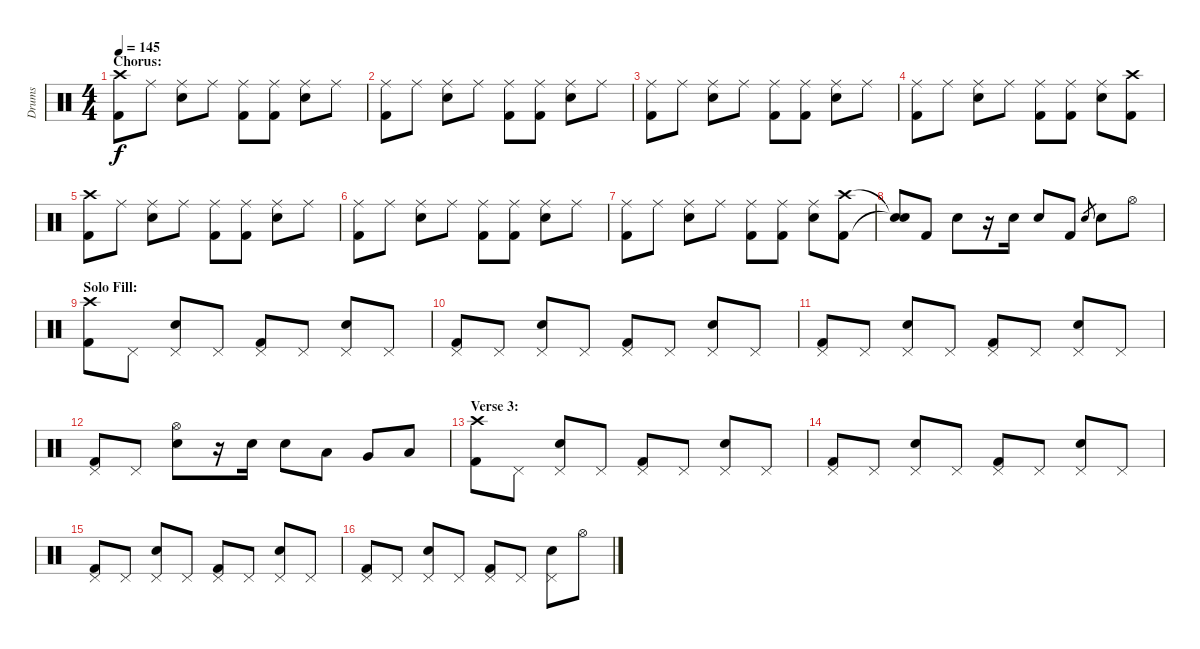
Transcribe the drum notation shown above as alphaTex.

\track ("Drums" "Drums") {instrument percussion}
\staff {score}
\articulation defaults
\ts (4 4)
\section ("" "Chorus:")
\tempo 145
\clef neutral
\ks c
("Crash high (hit)" "Kick (hit) 2").8{dy f} "Ride (middle)".8 ("Ride (middle)" "Electric Snare (hit)").8 "Ride (middle)".8 ("Ride (middle)" "Kick (hit) 2").8 ("Ride (middle)" "Kick (hit) 2").8 ("Ride (middle)" "Electric Snare (hit)").8 "Ride (middle)".8 |
("Ride (middle)" "Kick (hit) 2").8 "Ride (middle)".8 ("Ride (middle)" "Electric Snare (hit)").8 "Ride (middle)".8 ("Ride (middle)" "Kick (hit) 2").8 ("Ride (middle)" "Kick (hit) 2").8 ("Ride (middle)" "Electric Snare (hit)").8 "Ride (middle)".8 |
("Ride (middle)" "Kick (hit) 2").8 "Ride (middle)".8 ("Ride (middle)" "Electric Snare (hit)").8 "Ride (middle)".8 ("Ride (middle)" "Kick (hit) 2").8 ("Ride (middle)" "Kick (hit) 2").8 ("Ride (middle)" "Electric Snare (hit)").8 "Ride (middle)".8 |
("Ride (middle)" "Kick (hit) 2").8 "Ride (middle)".8 ("Ride (middle)" "Electric Snare (hit)").8 "Ride (middle)".8 ("Ride (middle)" "Kick (hit) 2").8 ("Ride (middle)" "Kick (hit) 2").8 ("Ride (middle)" "Electric Snare (hit)").8 ("Crash high (hit)" "Kick (hit) 2").8 |
("Crash high (hit)" "Kick (hit) 2").8 "Ride (middle)".8 ("Ride (middle)" "Electric Snare (hit)").8 "Ride (middle)".8 ("Ride (middle)" "Kick (hit) 2").8 ("Ride (middle)" "Kick (hit) 2").8 ("Ride (middle)" "Electric Snare (hit)").8 "Ride (middle)".8 |
("Ride (middle)" "Kick (hit) 2").8 "Ride (middle)".8 ("Ride (middle)" "Electric Snare (hit)").8 "Ride (middle)".8 ("Ride (middle)" "Kick (hit) 2").8 ("Ride (middle)" "Kick (hit) 2").8 ("Ride (middle)" "Electric Snare (hit)").8 "Ride (middle)".8 |
("Ride (middle)" "Kick (hit) 2").8 "Ride (middle)".8 ("Ride (middle)" "Electric Snare (hit)").8 "Ride (middle)".8 ("Ride (middle)" "Kick (hit) 2").8 ("Ride (middle)" "Kick (hit) 2").8 ("Ride (middle)" "Electric Snare (hit)").8 ("Crash high (hit)" "Kick (hit) 2").8 |
("Snare (hit)"{t} "Snare (hit)"{t}).8 "Kick (hit) 2".8 "Electric Snare (hit)".8 r.16 "Electric Snare (hit)".16 "Electric Snare (hit)".8 "Kick (hit) 2".8 "Electric Snare (hit)".8{gr} "Electric Snare (hit)".8 "Hi-Hat (open)".8 |
\section ("" "Solo Fill:")
("Crash high (hit)" "Kick (hit) 2").8 "Pedal Hi-Hat (hit)".8 ("Pedal Hi-Hat (hit)" "Electric Snare (hit)").8 "Pedal Hi-Hat (hit)".8 ("Pedal Hi-Hat (hit)" "Kick (hit) 2").8 "Pedal Hi-Hat (hit)".8 ("Pedal Hi-Hat (hit)" "Electric Snare (hit)").8 "Pedal Hi-Hat (hit)".8 |
("Pedal Hi-Hat (hit)" "Kick (hit) 2").8 "Pedal Hi-Hat (hit)".8 ("Pedal Hi-Hat (hit)" "Electric Snare (hit)").8 "Pedal Hi-Hat (hit)".8 ("Pedal Hi-Hat (hit)" "Kick (hit) 2").8 "Pedal Hi-Hat (hit)".8 ("Pedal Hi-Hat (hit)" "Electric Snare (hit)").8 "Pedal Hi-Hat (hit)".8 |
("Pedal Hi-Hat (hit)" "Kick (hit) 2").8 "Pedal Hi-Hat (hit)".8 ("Pedal Hi-Hat (hit)" "Electric Snare (hit)").8 "Pedal Hi-Hat (hit)".8 ("Pedal Hi-Hat (hit)" "Kick (hit) 2").8 "Pedal Hi-Hat (hit)".8 ("Pedal Hi-Hat (hit)" "Electric Snare (hit)").8 "Pedal Hi-Hat (hit)".8 |
("Pedal Hi-Hat (hit)" "Kick (hit) 2").8 "Pedal Hi-Hat (hit)".8 ("Hi-Hat (open)" "Electric Snare (hit)").8 r.16 "Electric Snare (hit)".16 "Electric Snare (hit)".8 "Low Tom (hit)".8 "Very Low Tom (hit)".8 "Low Floor Tom (hit)".8 |
\section ("" "Verse 3:")
("Crash high (hit)" "Kick (hit) 2").8 "Pedal Hi-Hat (hit)".8 ("Pedal Hi-Hat (hit)" "Electric Snare (hit)").8 "Pedal Hi-Hat (hit)".8 ("Pedal Hi-Hat (hit)" "Kick (hit) 2").8 "Pedal Hi-Hat (hit)".8 ("Pedal Hi-Hat (hit)" "Electric Snare (hit)").8 "Pedal Hi-Hat (hit)".8 |
("Pedal Hi-Hat (hit)" "Kick (hit) 2").8 "Pedal Hi-Hat (hit)".8 ("Pedal Hi-Hat (hit)" "Electric Snare (hit)").8 "Pedal Hi-Hat (hit)".8 ("Pedal Hi-Hat (hit)" "Kick (hit) 2").8 "Pedal Hi-Hat (hit)".8 ("Pedal Hi-Hat (hit)" "Electric Snare (hit)").8 "Pedal Hi-Hat (hit)".8 |
("Pedal Hi-Hat (hit)" "Kick (hit) 2").8 "Pedal Hi-Hat (hit)".8 ("Pedal Hi-Hat (hit)" "Electric Snare (hit)").8 "Pedal Hi-Hat (hit)".8 ("Pedal Hi-Hat (hit)" "Kick (hit) 2").8 "Pedal Hi-Hat (hit)".8 ("Pedal Hi-Hat (hit)" "Electric Snare (hit)").8 "Pedal Hi-Hat (hit)".8 |
("Pedal Hi-Hat (hit)" "Kick (hit) 2").8 "Pedal Hi-Hat (hit)".8 ("Pedal Hi-Hat (hit)" "Electric Snare (hit)").8 "Pedal Hi-Hat (hit)".8 ("Pedal Hi-Hat (hit)" "Kick (hit) 2").8 "Pedal Hi-Hat (hit)".8 ("Pedal Hi-Hat (hit)" "Electric Snare (hit)").8 "Hi-Hat (open)".8
